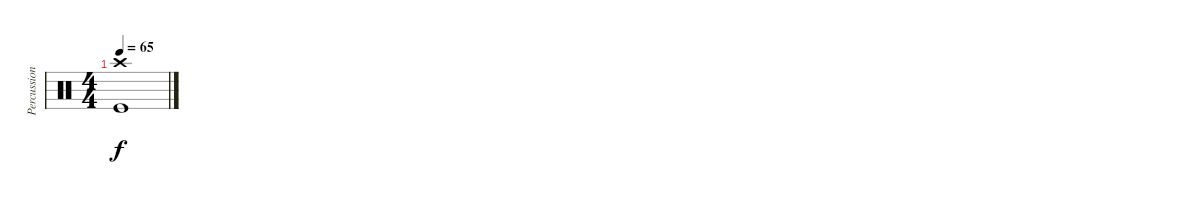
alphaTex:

\track ("Percussions" "Percussion") {instrument percussion}
\staff {score}
\articulation defaults
\ts (4 4)
\tempo 65
\clef neutral
\ks c
("Crash high (hit)" "Kick (hit)").1{dy f}
